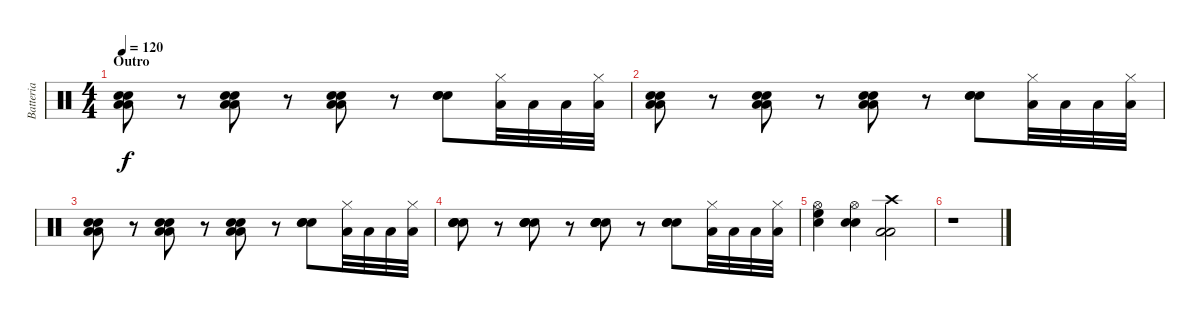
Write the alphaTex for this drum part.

\track ("Batteria" "Batteria") {instrument percussion}
\staff {score}
\articulation defaults
\ts (4 4)
\section ("" "Outro")
\tempo 120
\clef neutral
\ks c
("Electric Snare (hit)" "Electric Snare (hit)" "Low Tom (hit)" "Low Tom (hit)").8{dy f balance 10} r.8 ("Electric Snare (hit)" "Electric Snare (hit)" "Low Tom (hit)" "Low Tom (hit)").8 r.8 ("Electric Snare (hit)" "Electric Snare (hit)" "Low Tom (hit)" "Low Tom (hit)").8 r.8 ("Electric Snare (hit)" "Electric Snare (hit)" "Electric Snare (hit)").8 ("Low Tom (hit)" "Hi-Hat (closed)").32 "Low Tom (hit)".32 "Low Tom (hit)".32 ("Low Tom (hit)" "Hi-Hat (closed)").32 |
("Electric Snare (hit)" "Electric Snare (hit)" "Low Tom (hit)" "Low Tom (hit)").8 r.8 ("Electric Snare (hit)" "Electric Snare (hit)" "Low Tom (hit)" "Low Tom (hit)").8 r.8 ("Electric Snare (hit)" "Electric Snare (hit)" "Low Tom (hit)" "Low Tom (hit)").8 r.8 ("Electric Snare (hit)" "Electric Snare (hit)" "Electric Snare (hit)").8 ("Low Tom (hit)" "Hi-Hat (closed)").32 "Low Tom (hit)".32 "Low Tom (hit)".32 ("Low Tom (hit)" "Hi-Hat (closed)").32 |
("Electric Snare (hit)" "Electric Snare (hit)" "Low Tom (hit)" "Low Tom (hit)").8 r.8 ("Electric Snare (hit)" "Electric Snare (hit)" "Low Tom (hit)" "Low Tom (hit)").8 r.8 ("Electric Snare (hit)" "Electric Snare (hit)" "Low Tom (hit)" "Low Tom (hit)").8 r.8 ("Electric Snare (hit)" "Electric Snare (hit)" "Electric Snare (hit)").8 ("Low Tom (hit)" "Hi-Hat (closed)").32 "Low Tom (hit)".32 "Low Tom (hit)".32 ("Low Tom (hit)" "Hi-Hat (closed)").32 |
("Electric Snare (hit)" "Electric Snare (hit)" "Electric Snare (hit)" "Electric Snare (hit)").8 r.8 ("Electric Snare (hit)" "Electric Snare (hit)" "Electric Snare (hit)" "Electric Snare (hit)").8 r.8 ("Electric Snare (hit)" "Electric Snare (hit)" "Electric Snare (hit)" "Electric Snare (hit)").8 r.8 ("Electric Snare (hit)" "Electric Snare (hit)" "Electric Snare (hit)").8 ("Low Tom (hit)" "Hi-Hat (closed)").32 "Low Tom (hit)".32 "Low Tom (hit)".32 ("Low Tom (hit)" "Hi-Hat (closed)").32 |
("High Floor Tom (hit)" "Electric Snare (hit)" "Hi-Hat (open)").4 ("Electric Snare (hit)" "Electric Snare (hit)" "Hi-Hat (open)").4 ("Low Tom (hit)" "Low Floor Tom (hit)" "Crash high (hit)").2 |
r.1
